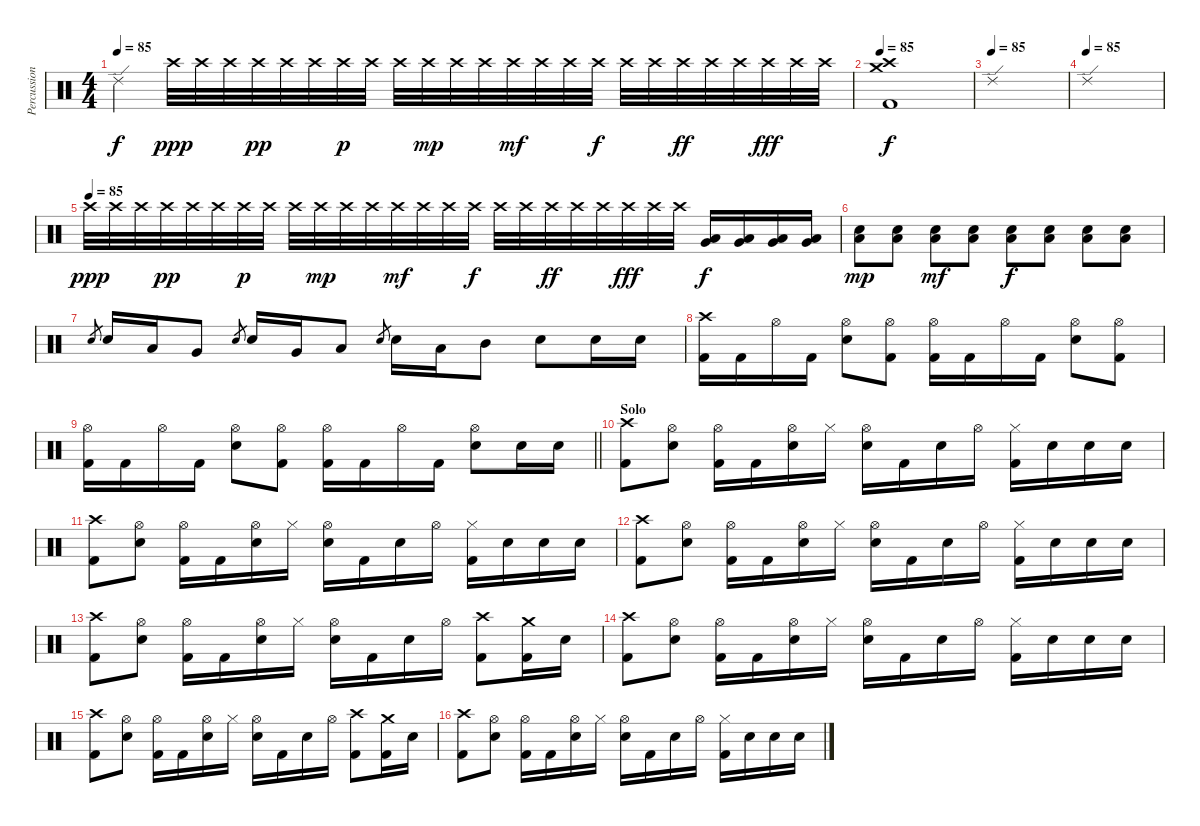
\track ("Percussion" "Percussion") {instrument percussion}
\staff {score}
\articulation defaults
\ts (4 4)
\tempo 85
\clef neutral
\ks c "Ride (edge) 2".4{dy f} "Crash high (hit)".32{dy ppp} "Crash high (hit)".32 "Crash high (hit)".32 "Crash high (hit)".32{dy pp} "Crash high (hit)".32 "Crash high (hit)".32 "Crash high (hit)".32{dy p} "Crash high (hit)".32 "Crash high (hit)".32 "Crash high (hit)".32{dy mp} "Crash high (hit)".32 "Crash high (hit)".32 "Crash high (hit)".32{dy mf} "Crash high (hit)".32 "Crash high (hit)".32 "Crash high (hit)".32{dy f} "Crash high (hit)".32 "Crash high (hit)".32 "Crash high (hit)".32{dy ff} "Crash high (hit)".32 "Crash high (hit)".32 "Crash high (hit)".32{dy fff} "Crash high (hit)".32 "Crash high (hit)".32
|
\tempo 85
("Crash high (hit)" "Crash medium (hit)" "Kick (hit) 2").1{dy f} |
\tempo (85)
"Ride (edge) 2".1 |
\tempo (85)
"Ride (edge) 2".1 |
\tempo 92
\tempo (85)
"Crash high (hit)".32{dy ppp} "Crash high (hit)".32 "Crash high (hit)".32 "Crash high (hit)".32{dy pp} "Crash high (hit)".32 "Crash high (hit)".32 "Crash high (hit)".32{dy p} "Crash high (hit)".32 "Crash high (hit)".32 "Crash high (hit)".32{dy mp} "Crash high (hit)".32 "Crash high (hit)".32 "Crash high (hit)".32{dy mf} "Crash high (hit)".32 "Crash high (hit)".32 "Crash high (hit)".32{dy f} "Crash high (hit)".32 "Crash high (hit)".32 "Crash high (hit)".32{dy ff} "Crash high (hit)".32 "Crash high (hit)".32 "Crash high (hit)".32{dy fff} "Crash high (hit)".32 "Crash high (hit)".32 ("Very Low Tom (hit)" "Low Floor Tom (hit)").16{dy f} ("Very Low Tom (hit)" "Low Floor Tom (hit)").16 ("Low Floor Tom (hit)" "Very Low Tom (hit)").16 ("Low Floor Tom (hit)" "Very Low Tom (hit)").16 |
("Low Floor Tom (hit)" "Snare (hit) 2").8{dy mp} ("Low Floor Tom (hit)" "Snare (hit) 2").8 ("Low Floor Tom (hit)" "Snare (hit) 2").8{dy mf} ("Low Floor Tom (hit)" "Snare (hit) 2").8 ("Low Floor Tom (hit)" "Snare (hit) 2").8{dy f} ("Low Floor Tom (hit)" "Snare (hit) 2").8 ("Low Floor Tom (hit)" "Snare (hit) 2").8 ("Low Floor Tom (hit)" "Snare (hit) 2").8 |
"Snare (hit) 2".8{gr} "Snare (hit) 2".16 "Low Floor Tom (hit)".16 "Very Low Tom (hit)".8 "Snare (hit) 2".8{gr} "Snare (hit) 2".16 "Very Low Tom (hit)".16 "Low Tom (hit)".8 "Snare (hit) 2".8{gr} "Snare (hit) 2".16 "Low Tom (hit)".16 "Mid Tom (hit)".8 "Snare (hit) 2".8 "Snare (hit) 2".16 "Snare (hit) 2".16 |
("Crash high (hit)" "Kick (hit) 2").16 "Kick (hit) 2".16 "Hi-Hat (open)".16 "Kick (hit) 2".16 ("Hi-Hat (open)" "Snare (hit) 2").8 ("Hi-Hat (open)" "Kick (hit) 2").8 ("Hi-Hat (open)" "Kick (hit) 2").16 "Kick (hit) 2".16 "Hi-Hat (open)".16 "Kick (hit) 2".16 ("Hi-Hat (open)" "Snare (hit) 2").8 ("Hi-Hat (open)" "Kick (hit) 2").8 |
\barLineRight lightlight
("Hi-Hat (open)" "Kick (hit) 2").16 "Kick (hit) 2".16 "Hi-Hat (open)".16 "Kick (hit) 2".16 ("Hi-Hat (open)" "Snare (hit) 2").8 ("Hi-Hat (open)" "Kick (hit) 2").8 ("Hi-Hat (open)" "Kick (hit) 2").16 "Kick (hit) 2".16 "Hi-Hat (open)".16 "Kick (hit) 2".16 ("Hi-Hat (open)" "Snare (hit) 2").8 "Snare (hit) 2".16 "Snare (hit) 2".16 |
\section ("" "Solo")
("Crash high (hit)" "Kick (hit) 2").8 ("Hi-Hat (open)" "Snare (hit) 2").8 ("Hi-Hat (open)" "Kick (hit) 2").16 "Kick (hit) 2".16 ("Hi-Hat (open)" "Snare (hit) 2").16 "Hi-Hat (closed)".16 ("Hi-Hat (open)" "Snare (hit) 2").16 "Kick (hit) 2".16 "Snare (hit) 2".16 "Hi-Hat (open)".16 ("Hi-Hat (closed)" "Kick (hit) 2").16 "Snare (hit) 2".16 "Snare (hit) 2".16 "Snare (hit) 2".16 |
("Crash high (hit)" "Kick (hit) 2").8 ("Hi-Hat (open)" "Snare (hit) 2").8 ("Hi-Hat (open)" "Kick (hit) 2").16 "Kick (hit) 2".16 ("Hi-Hat (open)" "Snare (hit) 2").16 "Hi-Hat (closed)".16 ("Hi-Hat (open)" "Snare (hit) 2").16 "Kick (hit) 2".16 "Snare (hit) 2".16 "Hi-Hat (open)".16 ("Hi-Hat (closed)" "Kick (hit) 2").16 "Snare (hit) 2".16 "Snare (hit) 2".16 "Snare (hit) 2".16 |
("Crash high (hit)" "Kick (hit) 2").8 ("Hi-Hat (open)" "Snare (hit) 2").8 ("Hi-Hat (open)" "Kick (hit) 2").16 "Kick (hit) 2".16 ("Hi-Hat (open)" "Snare (hit) 2").16 "Hi-Hat (closed)".16 ("Hi-Hat (open)" "Snare (hit) 2").16 "Kick (hit) 2".16 "Snare (hit) 2".16 "Hi-Hat (open)".16 ("Hi-Hat (closed)" "Kick (hit) 2").16 "Snare (hit) 2".16 "Snare (hit) 2".16 "Snare (hit) 2".16 |
("Crash high (hit)" "Kick (hit) 2").8 ("Hi-Hat (open)" "Snare (hit) 2").8 ("Hi-Hat (open)" "Kick (hit) 2").16 "Kick (hit) 2".16 ("Hi-Hat (open)" "Snare (hit) 2").16 "Hi-Hat (closed)".16 ("Hi-Hat (open)" "Snare (hit) 2").16 "Kick (hit) 2".16 "Snare (hit) 2".16 "Hi-Hat (open)".16 ("Crash high (hit)" "Kick (hit) 2").8 ("Crash medium (hit)" "Kick (hit) 2").16 "Snare (hit) 2".16 |
("Crash high (hit)" "Kick (hit) 2").8 ("Hi-Hat (open)" "Snare (hit) 2").8 ("Hi-Hat (open)" "Kick (hit) 2").16 "Kick (hit) 2".16 ("Hi-Hat (open)" "Snare (hit) 2").16 "Hi-Hat (closed)".16 ("Hi-Hat (open)" "Snare (hit) 2").16 "Kick (hit) 2".16 "Snare (hit) 2".16 "Hi-Hat (open)".16 ("Hi-Hat (closed)" "Kick (hit) 2").16 "Snare (hit) 2".16 "Snare (hit) 2".16 "Snare (hit) 2".16 |
("Crash high (hit)" "Kick (hit) 2").8 ("Hi-Hat (open)" "Snare (hit) 2").8 ("Hi-Hat (open)" "Kick (hit) 2").16 "Kick (hit) 2".16 ("Hi-Hat (open)" "Snare (hit) 2").16 "Hi-Hat (closed)".16 ("Hi-Hat (open)" "Snare (hit) 2").16 "Kick (hit) 2".16 "Snare (hit) 2".16 "Hi-Hat (open)".16 ("Crash high (hit)" "Kick (hit) 2").8 ("Crash medium (hit)" "Kick (hit) 2").16 "Snare (hit) 2".16 |
("Crash high (hit)" "Kick (hit) 2").8 ("Hi-Hat (open)" "Snare (hit) 2").8 ("Hi-Hat (open)" "Kick (hit) 2").16 "Kick (hit) 2".16 ("Hi-Hat (open)" "Snare (hit) 2").16 "Hi-Hat (closed)".16 ("Hi-Hat (open)" "Snare (hit) 2").16 "Kick (hit) 2".16 "Snare (hit) 2".16 "Hi-Hat (open)".16 ("Hi-Hat (closed)" "Kick (hit) 2").16 "Snare (hit) 2".16 "Snare (hit) 2".16 "Snare (hit) 2".16
